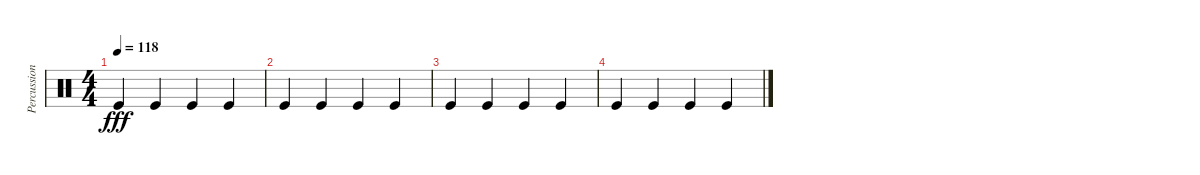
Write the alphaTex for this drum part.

\track ("Percussion" "Percussion") {instrument percussion}
\staff {score}
\articulation defaults
\ts (4 4)
\tempo 118
\clef neutral
\ks c "Kick (hit)".4{dy fff} "Kick (hit)".4 "Kick (hit)".4 "Kick (hit)".4
|
"Kick (hit)".4 "Kick (hit)".4 "Kick (hit)".4 "Kick (hit)".4 |
"Kick (hit)".4 "Kick (hit)".4 "Kick (hit)".4 "Kick (hit)".4 |
"Kick (hit)".4 "Kick (hit)".4 "Kick (hit)".4 "Kick (hit)".4
